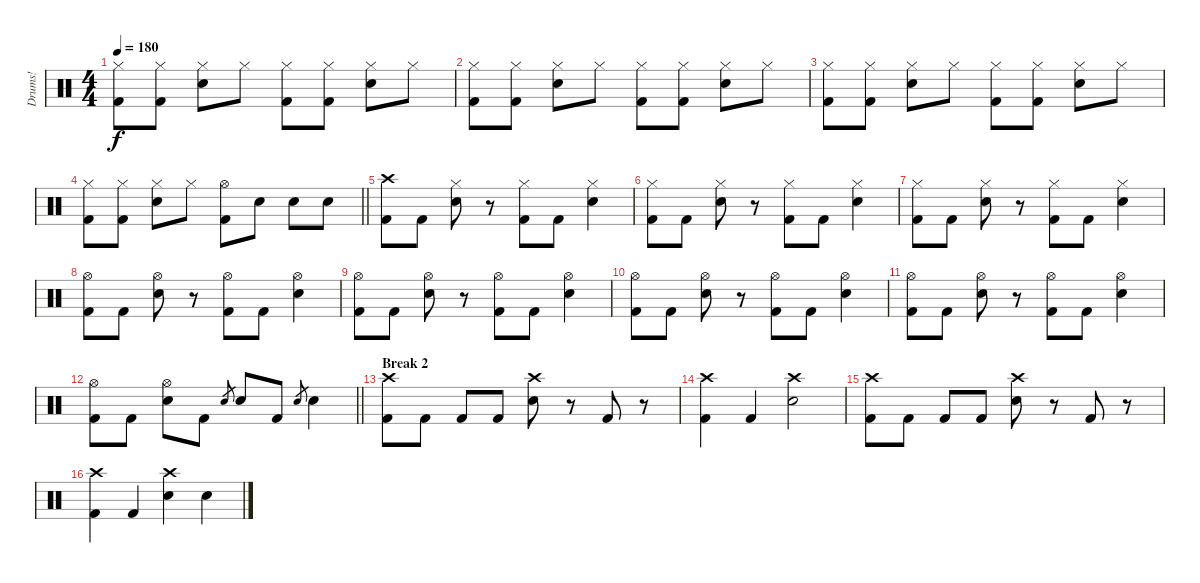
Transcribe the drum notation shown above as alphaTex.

\track ("Drums!" "Drums!") {instrument percussion}
\staff {score}
\articulation defaults
\ts (4 4)
\tempo 180
\clef neutral
\ks c
("Hi-Hat (closed)" "Kick (hit) 2").8{dy f} ("Hi-Hat (closed)" "Kick (hit) 2").8 ("Hi-Hat (closed)" "Electric Snare (hit)").8 "Hi-Hat (closed)".8 ("Hi-Hat (closed)" "Kick (hit) 2").8 ("Hi-Hat (closed)" "Kick (hit) 2").8 ("Hi-Hat (closed)" "Electric Snare (hit)").8 "Hi-Hat (closed)".8 |
("Hi-Hat (closed)" "Kick (hit) 2").8 ("Hi-Hat (closed)" "Kick (hit) 2").8 ("Hi-Hat (closed)" "Electric Snare (hit)").8 "Hi-Hat (closed)".8 ("Hi-Hat (closed)" "Kick (hit) 2").8 ("Hi-Hat (closed)" "Kick (hit) 2").8 ("Hi-Hat (closed)" "Electric Snare (hit)").8 "Hi-Hat (closed)".8 |
("Hi-Hat (closed)" "Kick (hit) 2").8 ("Hi-Hat (closed)" "Kick (hit) 2").8 ("Hi-Hat (closed)" "Electric Snare (hit)").8 "Hi-Hat (closed)".8 ("Hi-Hat (closed)" "Kick (hit) 2").8 ("Hi-Hat (closed)" "Kick (hit) 2").8 ("Hi-Hat (closed)" "Electric Snare (hit)").8 "Hi-Hat (closed)".8 |
\barLineRight lightlight
("Hi-Hat (closed)" "Kick (hit) 2").8 ("Hi-Hat (closed)" "Kick (hit) 2").8 ("Hi-Hat (closed)" "Electric Snare (hit)").8 "Hi-Hat (closed)".8 ("Hi-Hat (open)" "Kick (hit) 2").8 "Electric Snare (hit)".8 "Electric Snare (hit)".8 "Electric Snare (hit)".8 |
("Crash high (hit)" "Kick (hit) 2").8 "Kick (hit) 2".8 ("Hi-Hat (closed)" "Electric Snare (hit)").8 r.8 ("Hi-Hat (closed)" "Kick (hit) 2").8 "Kick (hit) 2".8 ("Hi-Hat (closed)" "Electric Snare (hit)").4 |
("Hi-Hat (closed)" "Kick (hit) 2").8 "Kick (hit) 2".8 ("Hi-Hat (closed)" "Electric Snare (hit)").8 r.8 ("Hi-Hat (closed)" "Kick (hit) 2").8 "Kick (hit) 2".8 ("Hi-Hat (closed)" "Electric Snare (hit)").4 |
("Hi-Hat (closed)" "Kick (hit) 2").8 "Kick (hit) 2".8 ("Hi-Hat (closed)" "Electric Snare (hit)").8 r.8 ("Hi-Hat (closed)" "Kick (hit) 2").8 "Kick (hit) 2".8 ("Hi-Hat (closed)" "Electric Snare (hit)").4 |
("Hi-Hat (open)" "Kick (hit) 2").8 "Kick (hit) 2".8 ("Hi-Hat (open)" "Electric Snare (hit)").8 r.8 ("Hi-Hat (open)" "Kick (hit) 2").8 "Kick (hit) 2".8 ("Hi-Hat (open)" "Electric Snare (hit)").4 |
("Hi-Hat (open)" "Kick (hit) 2").8 "Kick (hit) 2".8 ("Hi-Hat (open)" "Electric Snare (hit)").8 r.8 ("Hi-Hat (open)" "Kick (hit) 2").8 "Kick (hit) 2".8 ("Hi-Hat (open)" "Electric Snare (hit)").4 |
("Hi-Hat (open)" "Kick (hit) 2").8 "Kick (hit) 2".8 ("Hi-Hat (open)" "Electric Snare (hit)").8 r.8 ("Hi-Hat (open)" "Kick (hit) 2").8 "Kick (hit) 2".8 ("Hi-Hat (open)" "Electric Snare (hit)").4 |
("Hi-Hat (open)" "Kick (hit) 2").8 "Kick (hit) 2".8 ("Hi-Hat (open)" "Electric Snare (hit)").8 r.8 ("Hi-Hat (open)" "Kick (hit) 2").8 "Kick (hit) 2".8 ("Hi-Hat (open)" "Electric Snare (hit)").4 |
\barLineRight lightlight
("Hi-Hat (open)" "Kick (hit) 2").8 "Kick (hit) 2".8 ("Hi-Hat (open)" "Electric Snare (hit)").8 "Kick (hit) 2".8 "Electric Snare (hit)"{x}.8{gr} "Electric Snare (hit)".8 "Kick (hit) 2".8 "Electric Snare (hit)"{x}.8{gr} "Electric Snare (hit)".4 |
\section ("" "Break 2")
("Crash high (hit)" "Kick (hit) 2").8 "Kick (hit) 2".8 "Kick (hit) 2".8 "Kick (hit) 2".8 ("Crash high (hit)" "Electric Snare (hit)").8 r.8 "Kick (hit) 2".8 r.8 |
("Crash high (hit)" "Kick (hit) 2").4 "Kick (hit) 2".4 ("Crash high (hit)" "Electric Snare (hit)").2 |
("Crash high (hit)" "Kick (hit) 2").8 "Kick (hit) 2".8 "Kick (hit) 2".8 "Kick (hit) 2".8 ("Crash high (hit)" "Electric Snare (hit)").8 r.8 "Kick (hit) 2".8 r.8 |
("Crash high (hit)" "Kick (hit) 2").4 "Kick (hit) 2".4 ("Crash high (hit)" "Electric Snare (hit)").4 "Electric Snare (hit)".4
